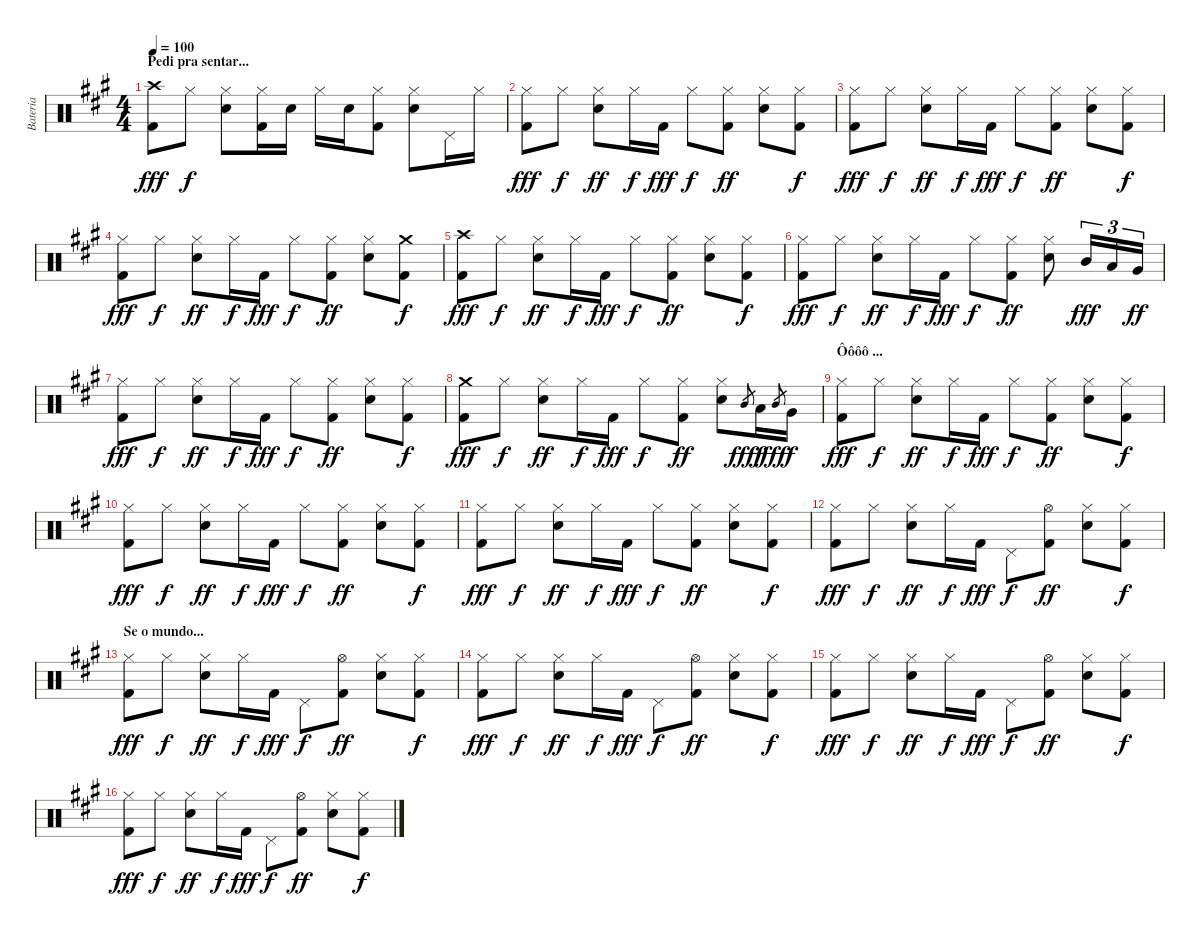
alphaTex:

\track ("Bateria" "Bateria") {instrument percussion}
\staff {score}
\articulation defaults
\ts (4 4)
\section ("" "Pedi pra sentar...")
\tempo 100
\clef neutral
\ks f#minor
("Crash high (hit)" "Kick (hit) 2").8{dy fff} "Hi-Hat (closed)".8{dy f} ("Hi-Hat (closed)" "Electric Snare (hit)").8 ("Hi-Hat (closed)" "Kick (hit) 2").16 "Electric Snare (hit)".16 "Hi-Hat (closed)".16 "Electric Snare (hit)".16 ("Hi-Hat (closed)" "Kick (hit) 2").8 ("Hi-Hat (closed)" "Electric Snare (hit)").8 "Pedal Hi-Hat (hit)".16 "Hi-Hat (closed)".16 |
("Hi-Hat (closed)" "Kick (hit) 2").8{dy fff} "Hi-Hat (closed)".8{dy f} ("Hi-Hat (closed)" "Electric Snare (hit)").8{dy ff} "Hi-Hat (closed)".16{dy f} "Kick (hit) 2".16{dy fff} "Hi-Hat (closed)".8{dy f} ("Hi-Hat (closed)" "Kick (hit) 2").8{dy ff} ("Hi-Hat (closed)" "Electric Snare (hit)").8 ("Hi-Hat (closed)" "Kick (hit) 2").8{dy f} |
("Hi-Hat (closed)" "Kick (hit) 2").8{dy fff} "Hi-Hat (closed)".8{dy f} ("Hi-Hat (closed)" "Electric Snare (hit)").8{dy ff} "Hi-Hat (closed)".16{dy f} "Kick (hit) 2".16{dy fff} "Hi-Hat (closed)".8{dy f} ("Hi-Hat (closed)" "Kick (hit) 2").8{dy ff} ("Hi-Hat (closed)" "Electric Snare (hit)").8 ("Hi-Hat (closed)" "Kick (hit) 2").8{dy f} |
("Hi-Hat (closed)" "Kick (hit) 2").8{dy fff} "Hi-Hat (closed)".8{dy f} ("Hi-Hat (closed)" "Electric Snare (hit)").8{dy ff} "Hi-Hat (closed)".16{dy f} "Kick (hit) 2".16{dy fff} "Hi-Hat (closed)".8{dy f} ("Hi-Hat (closed)" "Kick (hit) 2").8{dy ff} ("Hi-Hat (closed)" "Electric Snare (hit)").8 ("Crash medium (hit)" "Kick (hit) 2").8{dy f} |
("Crash high (hit)" "Kick (hit) 2").8{dy fff} "Hi-Hat (closed)".8{dy f} ("Hi-Hat (closed)" "Electric Snare (hit)").8{dy ff} "Hi-Hat (closed)".16{dy f} "Kick (hit) 2".16{dy fff} "Hi-Hat (closed)".8{dy f} ("Hi-Hat (closed)" "Kick (hit) 2").8{dy ff} ("Hi-Hat (closed)" "Electric Snare (hit)").8 ("Hi-Hat (closed)" "Kick (hit) 2").8{dy f} |
("Hi-Hat (closed)" "Kick (hit) 2").8{dy fff} "Hi-Hat (closed)".8{dy f} ("Hi-Hat (closed)" "Electric Snare (hit)").8{dy ff} "Hi-Hat (closed)".16{dy f} "Kick (hit) 2".16{dy fff} "Hi-Hat (closed)".8{dy f} ("Hi-Hat (closed)" "Kick (hit) 2").8{dy ff} ("Hi-Hat (closed)" "Electric Snare (hit)").8 "Mid Tom (hit)".16{tu (3 2) dy fff} "Low Tom (hit)".16{tu (3 2)} "Very Low Tom (hit)".16{tu (3 2) dy ff} |
("Hi-Hat (closed)" "Kick (hit) 2").8{dy fff} "Hi-Hat (closed)".8{dy f} ("Hi-Hat (closed)" "Electric Snare (hit)").8{dy ff} "Hi-Hat (closed)".16{dy f} "Kick (hit) 2".16{dy fff} "Hi-Hat (closed)".8{dy f} ("Hi-Hat (closed)" "Kick (hit) 2").8{dy ff} ("Hi-Hat (closed)" "Electric Snare (hit)").8 ("Hi-Hat (closed)" "Kick (hit) 2").8{dy f} |
("Crash medium (hit)" "Kick (hit) 2").8{dy fff} "Hi-Hat (closed)".8{dy f} ("Hi-Hat (closed)" "Electric Snare (hit)").8{dy ff} "Hi-Hat (closed)".16{dy f} "Kick (hit) 2".16{dy fff} "Hi-Hat (closed)".8{dy f} ("Hi-Hat (closed)" "Kick (hit) 2").8{dy ff} ("Hi-Hat (closed)" "Electric Snare (hit)").8 "Mid Tom (hit)".8{gr dy fff} "Low Tom (hit)".16{dy f} "Mid Tom (hit)".8{gr dy fff} "Very Low Tom (hit)".16{dy f} |
\section ("" "Ôôôô ...")
("Hi-Hat (closed)" "Kick (hit) 2").8{dy fff} "Hi-Hat (closed)".8{dy f} ("Hi-Hat (closed)" "Electric Snare (hit)").8{dy ff} "Hi-Hat (closed)".16{dy f} "Kick (hit) 2".16{dy fff} "Hi-Hat (closed)".8{dy f} ("Hi-Hat (closed)" "Kick (hit) 2").8{dy ff} ("Hi-Hat (closed)" "Electric Snare (hit)").8 ("Hi-Hat (closed)" "Kick (hit) 2").8{dy f} |
("Hi-Hat (closed)" "Kick (hit) 2").8{dy fff} "Hi-Hat (closed)".8{dy f} ("Hi-Hat (closed)" "Electric Snare (hit)").8{dy ff} "Hi-Hat (closed)".16{dy f} "Kick (hit) 2".16{dy fff} "Hi-Hat (closed)".8{dy f} ("Hi-Hat (closed)" "Kick (hit) 2").8{dy ff} ("Hi-Hat (closed)" "Electric Snare (hit)").8 ("Hi-Hat (closed)" "Kick (hit) 2").8{dy f} |
("Hi-Hat (closed)" "Kick (hit) 2").8{dy fff} "Hi-Hat (closed)".8{dy f} ("Hi-Hat (closed)" "Electric Snare (hit)").8{dy ff} "Hi-Hat (closed)".16{dy f} "Kick (hit) 2".16{dy fff} "Hi-Hat (closed)".8{dy f} ("Hi-Hat (closed)" "Kick (hit) 2").8{dy ff} ("Hi-Hat (closed)" "Electric Snare (hit)").8 ("Hi-Hat (closed)" "Kick (hit) 2").8{dy f} |
("Hi-Hat (closed)" "Kick (hit) 2").8{dy fff} "Hi-Hat (closed)".8{dy f} ("Hi-Hat (closed)" "Electric Snare (hit)").8{dy ff} "Hi-Hat (closed)".16{dy f} "Kick (hit) 2".16{dy fff} "Pedal Hi-Hat (hit)".8{dy f} ("Hi-Hat (open)" "Kick (hit) 2").8{dy ff} ("Hi-Hat (closed)" "Electric Snare (hit)").8 ("Hi-Hat (closed)" "Kick (hit) 2").8{dy f} |
\section ("" "Se o mundo...")
("Hi-Hat (closed)" "Kick (hit) 2").8{dy fff} "Hi-Hat (closed)".8{dy f} ("Hi-Hat (closed)" "Electric Snare (hit)").8{dy ff} "Hi-Hat (closed)".16{dy f} "Kick (hit) 2".16{dy fff} "Pedal Hi-Hat (hit)".8{dy f} ("Hi-Hat (open)" "Kick (hit) 2").8{dy ff} ("Hi-Hat (closed)" "Electric Snare (hit)").8 ("Hi-Hat (closed)" "Kick (hit) 2").8{dy f} |
("Hi-Hat (closed)" "Kick (hit) 2").8{dy fff} "Hi-Hat (closed)".8{dy f} ("Hi-Hat (closed)" "Electric Snare (hit)").8{dy ff} "Hi-Hat (closed)".16{dy f} "Kick (hit) 2".16{dy fff} "Pedal Hi-Hat (hit)".8{dy f} ("Hi-Hat (open)" "Kick (hit) 2").8{dy ff} ("Hi-Hat (closed)" "Electric Snare (hit)").8 ("Hi-Hat (closed)" "Kick (hit) 2").8{dy f} |
("Hi-Hat (closed)" "Kick (hit) 2").8{dy fff} "Hi-Hat (closed)".8{dy f} ("Hi-Hat (closed)" "Electric Snare (hit)").8{dy ff} "Hi-Hat (closed)".16{dy f} "Kick (hit) 2".16{dy fff} "Pedal Hi-Hat (hit)".8{dy f} ("Hi-Hat (open)" "Kick (hit) 2").8{dy ff} ("Hi-Hat (closed)" "Electric Snare (hit)").8 ("Hi-Hat (closed)" "Kick (hit) 2").8{dy f} |
("Hi-Hat (closed)" "Kick (hit) 2").8{dy fff} "Hi-Hat (closed)".8{dy f} ("Hi-Hat (closed)" "Electric Snare (hit)").8{dy ff} "Hi-Hat (closed)".16{dy f} "Kick (hit) 2".16{dy fff} "Pedal Hi-Hat (hit)".8{dy f} ("Hi-Hat (open)" "Kick (hit) 2").8{dy ff} ("Hi-Hat (closed)" "Electric Snare (hit)").8 ("Hi-Hat (closed)" "Kick (hit) 2").8{dy f}
